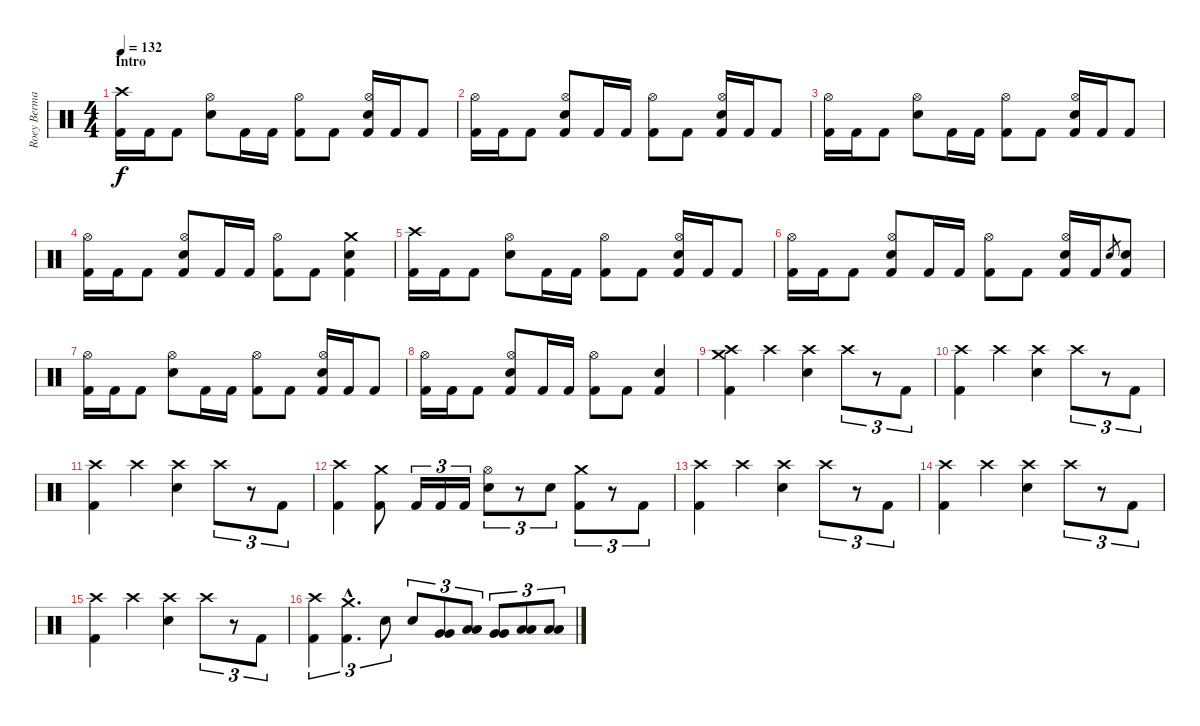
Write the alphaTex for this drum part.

\track ("Roey Berman" "Roey Berma") {instrument percussion}
\staff {score}
\articulation defaults
\ts (4 4)
\section ("" "Intro")
\tempo 132
\clef neutral
\ks c
("Crash high (hit)" "Kick (hit) 2").16{dy f} "Kick (hit) 2".16 "Kick (hit) 2".8 ("Hi-Hat (open)" "Electric Snare (hit)").8 "Kick (hit) 2".16 "Kick (hit) 2".16 ("Hi-Hat (open)" "Kick (hit) 2").8 "Kick (hit) 2".8 ("Hi-Hat (open)" "Electric Snare (hit)" "Kick (hit) 2").16 "Kick (hit) 2".16 "Kick (hit) 2".8 |
("Hi-Hat (open)" "Kick (hit) 2").16 "Kick (hit) 2".16 "Kick (hit) 2".8 ("Hi-Hat (open)" "Electric Snare (hit)" "Kick (hit) 2").8 "Kick (hit) 2".16 "Kick (hit) 2".16 ("Hi-Hat (open)" "Kick (hit) 2").8 "Kick (hit) 2".8 ("Hi-Hat (open)" "Electric Snare (hit)" "Kick (hit) 2").16 "Kick (hit) 2".16 "Kick (hit) 2".8 |
("Hi-Hat (open)" "Kick (hit) 2").16 "Kick (hit) 2".16 "Kick (hit) 2".8 ("Hi-Hat (open)" "Electric Snare (hit)").8 "Kick (hit) 2".16 "Kick (hit) 2".16 ("Hi-Hat (open)" "Kick (hit) 2").8 "Kick (hit) 2".8 ("Hi-Hat (open)" "Electric Snare (hit)" "Kick (hit) 2").16 "Kick (hit) 2".16 "Kick (hit) 2".8 |
("Hi-Hat (open)" "Kick (hit) 2").16 "Kick (hit) 2".16 "Kick (hit) 2".8 ("Hi-Hat (open)" "Electric Snare (hit)" "Kick (hit) 2").8 "Kick (hit) 2".16 "Kick (hit) 2".16 ("Hi-Hat (open)" "Kick (hit) 2").8 "Kick (hit) 2".8 ("Crash medium (hit)" "Electric Snare (hit)" "Kick (hit) 2").4 |
("Crash high (hit)" "Kick (hit) 2").16 "Kick (hit) 2".16 "Kick (hit) 2".8 ("Hi-Hat (open)" "Electric Snare (hit)").8 "Kick (hit) 2".16 "Kick (hit) 2".16 ("Hi-Hat (open)" "Kick (hit) 2").8 "Kick (hit) 2".8 ("Hi-Hat (open)" "Electric Snare (hit)" "Kick (hit) 2").16 "Kick (hit) 2".16 "Kick (hit) 2".8 |
("Hi-Hat (open)" "Kick (hit) 2").16 "Kick (hit) 2".16 "Kick (hit) 2".8 ("Hi-Hat (open)" "Electric Snare (hit)" "Kick (hit) 2").8 "Kick (hit) 2".16 "Kick (hit) 2".16 ("Hi-Hat (open)" "Kick (hit) 2").8 "Kick (hit) 2".8 ("Hi-Hat (open)" "Electric Snare (hit)" "Kick (hit) 2").16 "Kick (hit) 2".16 "Electric Snare (hit)".8{gr} ("Electric Snare (hit)" "Kick (hit) 2").8 |
("Hi-Hat (open)" "Kick (hit) 2").16 "Kick (hit) 2".16 "Kick (hit) 2".8 ("Hi-Hat (open)" "Electric Snare (hit)").8 "Kick (hit) 2".16 "Kick (hit) 2".16 ("Hi-Hat (open)" "Kick (hit) 2").8 "Kick (hit) 2".8 ("Hi-Hat (open)" "Electric Snare (hit)" "Kick (hit) 2").16 "Kick (hit) 2".16 "Kick (hit) 2".8 |
("Hi-Hat (open)" "Kick (hit) 2").16 "Kick (hit) 2".16 "Kick (hit) 2".8 ("Hi-Hat (open)" "Electric Snare (hit)" "Kick (hit) 2").8 "Kick (hit) 2".16 "Kick (hit) 2".16 ("Hi-Hat (open)" "Kick (hit) 2").8 "Kick (hit) 2".8 ("Electric Snare (hit)" "Kick (hit) 2").4 |
\section ("" "")
("Crash medium (hit)" "Crash high (hit)" "Kick (hit) 2").4 "Crash high (hit)".4 ("Crash high (hit)" "Electric Snare (hit)").4 "Crash high (hit)".8{tu (3 2)} r.8{tu (3 2)} "Kick (hit) 2".8{tu (3 2)} |
("Crash high (hit)" "Kick (hit) 2").4 "Crash high (hit)".4 ("Crash high (hit)" "Electric Snare (hit)").4 "Crash high (hit)".8{tu (3 2)} r.8{tu (3 2)} "Kick (hit) 2".8{tu (3 2)} |
("Crash high (hit)" "Kick (hit) 2").4 "Crash high (hit)".4 ("Crash high (hit)" "Electric Snare (hit)").4 "Crash high (hit)".8{tu (3 2)} r.8{tu (3 2)} "Kick (hit) 2".8{tu (3 2)} |
("Crash high (hit)" "Kick (hit) 2").4 ("Crash medium (hit)" "Kick (hit) 2").8 "Kick (hit) 2".16{tu (3 2)} "Kick (hit) 2".16{tu (3 2)} "Kick (hit) 2".16{tu (3 2)} ("Hi-Hat (open)" "Electric Snare (hit)").8{tu (3 2)} r.8{tu (3 2)} "Electric Snare (hit)".8{tu (3 2)} ("Crash medium (hit)" "Kick (hit) 2").8{tu (3 2)} r.8{tu (3 2)} "Kick (hit) 2".8{tu (3 2)} |
("Crash high (hit)" "Kick (hit) 2").4 "Crash high (hit)".4 ("Crash high (hit)" "Electric Snare (hit)").4 "Crash high (hit)".8{tu (3 2)} r.8{tu (3 2)} "Kick (hit) 2".8{tu (3 2)} |
("Crash high (hit)" "Kick (hit) 2").4 "Crash high (hit)".4 ("Crash high (hit)" "Electric Snare (hit)").4 "Crash high (hit)".8{tu (3 2)} r.8{tu (3 2)} "Kick (hit) 2".8{tu (3 2)} |
("Crash high (hit)" "Kick (hit) 2").4 "Crash high (hit)".4 ("Crash high (hit)" "Electric Snare (hit)").4 "Crash high (hit)".8{tu (3 2)} r.8{tu (3 2)} "Kick (hit) 2".8{tu (3 2)} |
("Crash high (hit)" "Kick (hit) 2").4{tu (3 2)} ("Crash medium (hit)"{hac} "Kick (hit) 2"{hac}).4{d tu (3 2)} "Electric Snare (hit)".8{tu (3 2)} "Electric Snare (hit)".8{tu (3 2)} ("Very Low Tom (hit)" "Very Low Tom (hit)").8{tu (3 2)} ("Low Floor Tom (hit)" "Low Floor Tom (hit)").8{tu (3 2)} ("Very Low Tom (hit)" "Very Low Tom (hit)").8{tu (3 2)} ("Low Floor Tom (hit)" "Low Floor Tom (hit)").8{tu (3 2)} ("Low Floor Tom (hit)" "Low Floor Tom (hit)").8{tu (3 2)}
